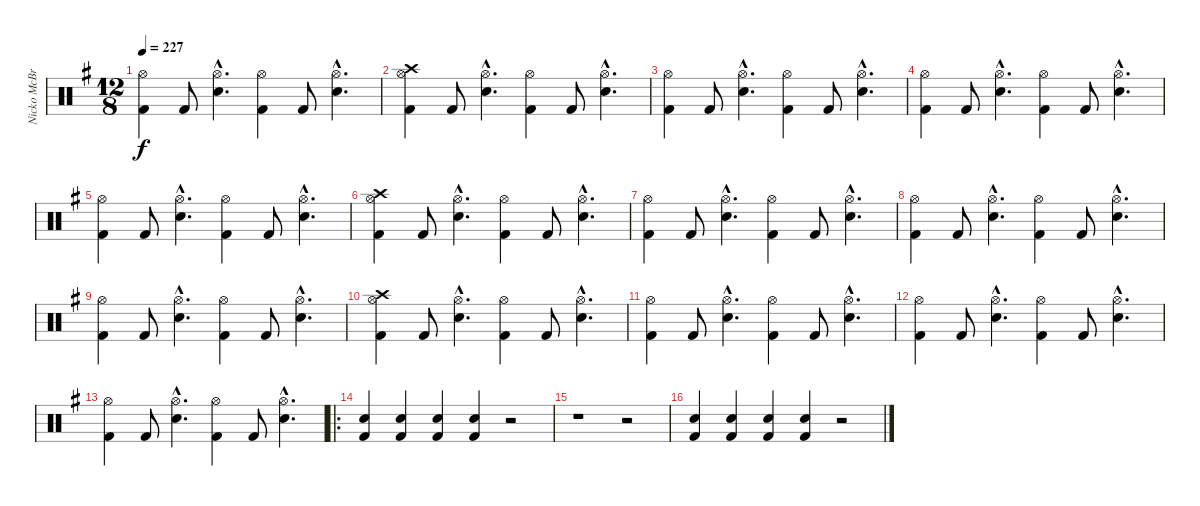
\track ("Nicko McBrain" "Nicko McBr") {instrument percussion}
\staff {score}
\articulation defaults
\ts (12 8)
\tempo 227
\clef neutral
\ks g
("Kick (hit) 2" "Hi-Hat (open)").4{dy f} "Kick (hit) 2".8 ("Snare (hit) 2"{hac} "Hi-Hat (open)"{hac}).4{d} ("Kick (hit) 2" "Hi-Hat (open)").4 "Kick (hit) 2".8 ("Snare (hit) 2"{hac} "Hi-Hat (open)"{hac}).4{d} |
("Kick (hit) 2" "Hi-Hat (open)" "Crash high (hit)").4 "Kick (hit) 2".8 ("Snare (hit) 2"{hac} "Hi-Hat (open)"{hac}).4{d} ("Kick (hit) 2" "Hi-Hat (open)").4 "Kick (hit) 2".8 ("Snare (hit) 2"{hac} "Hi-Hat (open)"{hac}).4{d} |
("Kick (hit) 2" "Hi-Hat (open)").4 "Kick (hit) 2".8 ("Snare (hit) 2"{hac} "Hi-Hat (open)"{hac}).4{d} ("Kick (hit) 2" "Hi-Hat (open)").4 "Kick (hit) 2".8 ("Snare (hit) 2"{hac} "Hi-Hat (open)"{hac}).4{d} |
("Kick (hit) 2" "Hi-Hat (open)").4 "Kick (hit) 2".8 ("Snare (hit) 2"{hac} "Hi-Hat (open)"{hac}).4{d} ("Kick (hit) 2" "Hi-Hat (open)").4 "Kick (hit) 2".8 ("Snare (hit) 2"{hac} "Hi-Hat (open)"{hac}).4{d} |
("Kick (hit) 2" "Hi-Hat (open)").4 "Kick (hit) 2".8 ("Snare (hit) 2"{hac} "Hi-Hat (open)"{hac}).4{d} ("Kick (hit) 2" "Hi-Hat (open)").4 "Kick (hit) 2".8 ("Snare (hit) 2"{hac} "Hi-Hat (open)"{hac}).4{d} |
("Kick (hit) 2" "Hi-Hat (open)" "Crash high (hit)").4 "Kick (hit) 2".8 ("Snare (hit) 2"{hac} "Hi-Hat (open)"{hac}).4{d} ("Kick (hit) 2" "Hi-Hat (open)").4 "Kick (hit) 2".8 ("Snare (hit) 2"{hac} "Hi-Hat (open)"{hac}).4{d} |
("Kick (hit) 2" "Hi-Hat (open)").4 "Kick (hit) 2".8 ("Snare (hit) 2"{hac} "Hi-Hat (open)"{hac}).4{d} ("Kick (hit) 2" "Hi-Hat (open)").4 "Kick (hit) 2".8 ("Snare (hit) 2"{hac} "Hi-Hat (open)"{hac}).4{d} |
("Kick (hit) 2" "Hi-Hat (open)").4 "Kick (hit) 2".8 ("Snare (hit) 2"{hac} "Hi-Hat (open)"{hac}).4{d} ("Kick (hit) 2" "Hi-Hat (open)").4 "Kick (hit) 2".8 ("Snare (hit) 2"{hac} "Hi-Hat (open)"{hac}).4{d} |
("Kick (hit) 2" "Hi-Hat (open)").4 "Kick (hit) 2".8 ("Snare (hit) 2"{hac} "Hi-Hat (open)"{hac}).4{d} ("Kick (hit) 2" "Hi-Hat (open)").4 "Kick (hit) 2".8 ("Snare (hit) 2"{hac} "Hi-Hat (open)"{hac}).4{d} |
("Kick (hit) 2" "Hi-Hat (open)" "Crash high (hit)").4 "Kick (hit) 2".8 ("Snare (hit) 2"{hac} "Hi-Hat (open)"{hac}).4{d} ("Kick (hit) 2" "Hi-Hat (open)").4 "Kick (hit) 2".8 ("Snare (hit) 2"{hac} "Hi-Hat (open)"{hac}).4{d} |
("Kick (hit) 2" "Hi-Hat (open)").4 "Kick (hit) 2".8 ("Snare (hit) 2"{hac} "Hi-Hat (open)"{hac}).4{d} ("Kick (hit) 2" "Hi-Hat (open)").4 "Kick (hit) 2".8 ("Snare (hit) 2"{hac} "Hi-Hat (open)"{hac}).4{d} |
("Kick (hit) 2" "Hi-Hat (open)").4 "Kick (hit) 2".8 ("Snare (hit) 2"{hac} "Hi-Hat (open)"{hac}).4{d} ("Kick (hit) 2" "Hi-Hat (open)").4 "Kick (hit) 2".8 ("Snare (hit) 2"{hac} "Hi-Hat (open)"{hac}).4{d} |
("Kick (hit) 2" "Hi-Hat (open)").4 "Kick (hit) 2".8 ("Snare (hit) 2"{hac} "Hi-Hat (open)"{hac}).4{d} ("Kick (hit) 2" "Hi-Hat (open)").4 "Kick (hit) 2".8 ("Snare (hit) 2"{hac} "Hi-Hat (open)"{hac}).4{d} |
\ro
("Kick (hit) 2" "Snare (hit) 2").4 ("Kick (hit) 2" "Snare (hit) 2").4 ("Kick (hit) 2" "Snare (hit) 2").4 ("Kick (hit) 2" "Snare (hit) 2").4 r.2 |
r.1 r.2 |
("Kick (hit) 2" "Snare (hit) 2").4 ("Kick (hit) 2" "Snare (hit) 2").4 ("Kick (hit) 2" "Snare (hit) 2").4 ("Kick (hit) 2" "Snare (hit) 2").4 r.2
